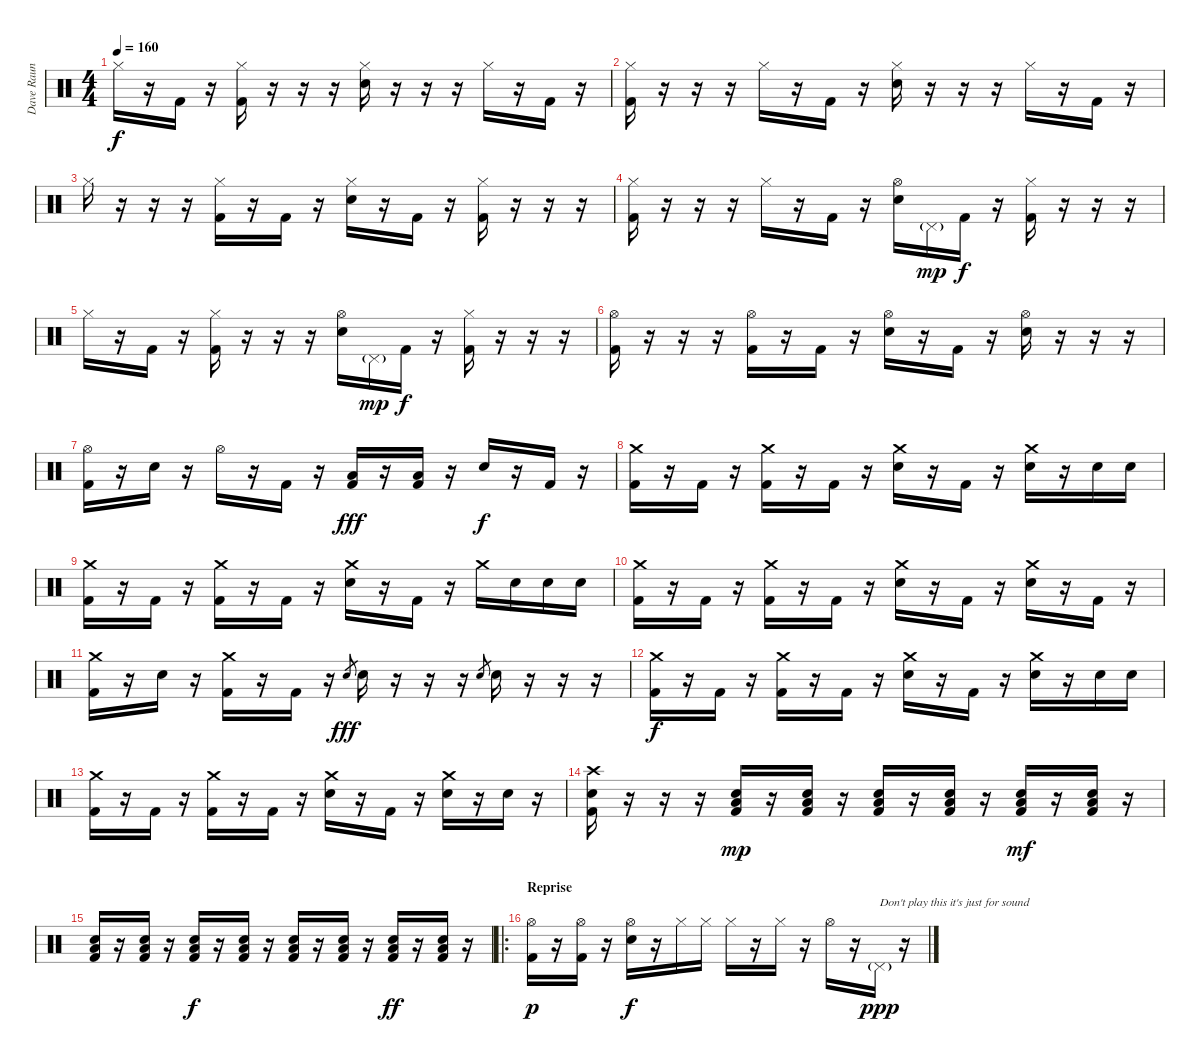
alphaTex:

\track ("Dave Raun" "Dave Raun") {instrument percussion}
\staff {score}
\articulation defaults
\ts (4 4)
\tempo 160
\clef neutral
\ks c "Hi-Hat (closed)".16{dy f}
r.16 "Kick (hit) 2".16 r.16 ("Hi-Hat (closed)" "Kick (hit) 2").16 r.16 r.16 r.16 ("Hi-Hat (closed)" "Snare (hit) 2").16 r.16 r.16 r.16 "Hi-Hat (closed)".16 r.16 "Kick (hit) 2".16 r.16 |
("Hi-Hat (closed)" "Kick (hit) 2").16 r.16 r.16 r.16 "Hi-Hat (closed)".16 r.16 "Kick (hit) 2".16 r.16 ("Hi-Hat (closed)" "Snare (hit) 2").16 r.16 r.16 r.16 "Hi-Hat (closed)".16 r.16 "Kick (hit) 2".16 r.16 |
"Hi-Hat (closed)".16 r.16 r.16 r.16 ("Hi-Hat (closed)" "Kick (hit) 2").16 r.16 "Kick (hit) 2".16 r.16 ("Hi-Hat (closed)" "Snare (hit) 2").16 r.16 "Kick (hit) 2".16 r.16 ("Hi-Hat (closed)" "Kick (hit) 2").16 r.16 r.16 r.16 |
("Hi-Hat (closed)" "Kick (hit) 2").16 r.16 r.16 r.16 "Hi-Hat (closed)".16 r.16 "Kick (hit) 2".16 r.16 ("Hi-Hat (open)" "Snare (hit) 2").16 "Pedal Hi-Hat (hit)"{g}.16{dy mp} "Kick (hit) 2".16{dy f} r.16 ("Hi-Hat (closed)" "Kick (hit) 2").16 r.16 r.16 r.16 |
"Hi-Hat (closed)".16 r.16 "Kick (hit) 2".16 r.16 ("Hi-Hat (closed)" "Kick (hit) 2").16 r.16 r.16 r.16 ("Hi-Hat (open)" "Snare (hit) 2").16 "Pedal Hi-Hat (hit)"{g}.16{dy mp} "Kick (hit) 2".16{dy f} r.16 ("Hi-Hat (closed)" "Kick (hit) 2").16 r.16 r.16 r.16 |
("Hi-Hat (open)" "Kick (hit) 2").16 r.16 r.16 r.16 ("Hi-Hat (open)" "Kick (hit) 2").16 r.16 "Kick (hit) 2".16 r.16 ("Hi-Hat (open)" "Snare (hit) 2").16 r.16 "Kick (hit) 2".16 r.16 ("Hi-Hat (open)" "Snare (hit) 2").16 r.16 r.16 r.16 |
("Hi-Hat (open)" "Kick (hit) 2").16 r.16 "Snare (hit) 2".16 r.16 "Hi-Hat (open)".16 r.16 "Kick (hit) 2".16 r.16 ("Low Floor Tom (hit)" "Kick (hit) 2").16{dy fff} r.16 ("Low Floor Tom (hit)" "Kick (hit) 2").16 r.16 "Snare (hit) 2".16{dy f} r.16 "Kick (hit) 2".16 r.16 |
("Crash medium (hit)" "Kick (hit) 2").16 r.16 "Kick (hit) 2".16 r.16 ("Crash medium (hit)" "Kick (hit) 2").16 r.16 "Kick (hit) 2".16 r.16 ("Crash medium (hit)" "Snare (hit) 2").16 r.16 "Kick (hit) 2".16 r.16 ("Crash medium (hit)" "Snare (hit) 2").16 r.16 "Snare (hit) 2".16 "Snare (hit) 2".16 |
("Crash medium (hit)" "Kick (hit) 2").16 r.16 "Kick (hit) 2".16 r.16 ("Crash medium (hit)" "Kick (hit) 2").16 r.16 "Kick (hit) 2".16 r.16 ("Crash medium (hit)" "Snare (hit) 2").16 r.16 "Kick (hit) 2".16 r.16 "Crash medium (hit)".16 "Snare (hit) 2".16 "Snare (hit) 2".16 "Snare (hit) 2".16 |
("Crash medium (hit)" "Kick (hit) 2").16 r.16 "Kick (hit) 2".16 r.16 ("Crash medium (hit)" "Kick (hit) 2").16 r.16 "Kick (hit) 2".16 r.16 ("Crash medium (hit)" "Snare (hit) 2").16 r.16 "Kick (hit) 2".16 r.16 ("Crash medium (hit)" "Snare (hit) 2").16 r.16 "Kick (hit) 2".16 r.16 |
("Crash medium (hit)" "Kick (hit) 2").16 r.16 "Snare (hit) 2".16 r.16 ("Crash medium (hit)" "Kick (hit) 2").16 r.16 "Kick (hit) 2".16 r.16 "Snare (hit) 2".8{gr dy fff} "Snare (hit) 2".16 r.16 r.16 r.16 "Snare (hit) 2".8{gr} "Snare (hit) 2".16 r.16 r.16 r.16 |
("Crash medium (hit)" "Kick (hit) 2").16{dy f} r.16 "Kick (hit) 2".16 r.16 ("Crash medium (hit)" "Kick (hit) 2").16 r.16 "Kick (hit) 2".16 r.16 ("Crash medium (hit)" "Snare (hit) 2").16 r.16 "Kick (hit) 2".16 r.16 ("Crash medium (hit)" "Snare (hit) 2").16 r.16 "Snare (hit) 2".16 "Snare (hit) 2".16 |
("Crash medium (hit)" "Kick (hit) 2").16 r.16 "Kick (hit) 2".16 r.16 ("Crash medium (hit)" "Kick (hit) 2").16 r.16 "Kick (hit) 2".16 r.16 ("Crash medium (hit)" "Snare (hit) 2").16 r.16 "Kick (hit) 2".16 r.16 ("Crash medium (hit)" "Snare (hit) 2").16 r.16 "Snare (hit) 2".16 r.16 |
("Crash high (hit)" "Snare (hit) 2" "Kick (hit) 2").16 r.16 r.16 r.16 ("Low Floor Tom (hit)" "Snare (hit) 2" "Kick (hit) 2").16{dy mp} r.16 ("Low Floor Tom (hit)" "Snare (hit) 2" "Kick (hit) 2").16 r.16 ("Low Floor Tom (hit)" "Snare (hit) 2" "Kick (hit) 2").16 r.16 ("Low Floor Tom (hit)" "Snare (hit) 2" "Kick (hit) 2").16 r.16 ("Low Floor Tom (hit)" "Snare (hit) 2" "Kick (hit) 2").16{dy mf} r.16 ("Low Floor Tom (hit)" "Snare (hit) 2" "Kick (hit) 2").16 r.16 |
("Low Floor Tom (hit)" "Snare (hit) 2" "Kick (hit) 2").16 r.16 ("Low Floor Tom (hit)" "Snare (hit) 2" "Kick (hit) 2").16 r.16 ("Low Floor Tom (hit)" "Snare (hit) 2" "Kick (hit) 2").16{dy f} r.16 ("Low Floor Tom (hit)" "Snare (hit) 2" "Kick (hit) 2").16 r.16 ("Low Floor Tom (hit)" "Snare (hit) 2" "Kick (hit) 2").16 r.16 ("Low Floor Tom (hit)" "Snare (hit) 2" "Kick (hit) 2").16 r.16 ("Low Floor Tom (hit)" "Snare (hit) 2" "Kick (hit) 2").16{dy ff} r.16 ("Low Floor Tom (hit)" "Snare (hit) 2" "Kick (hit) 2").16 r.16 |
\ro
\section ("" "Reprise")
("Hi-Hat (open)" "Kick (hit) 2").16{dy p} r.16 ("Hi-Hat (open)" "Kick (hit) 2").16 r.16 ("Hi-Hat (open)" "Snare (hit) 2").16{dy f} r.16 "Hi-Hat (closed)".16 "Hi-Hat (closed)".16 "Hi-Hat (closed)".16 r.16 "Hi-Hat (closed)".16 r.16 "Hi-Hat (open)".16 r.16 "Pedal Hi-Hat (hit)"{g}.16{txt "Don't play this it's just for sound" dy ppp} r.16
